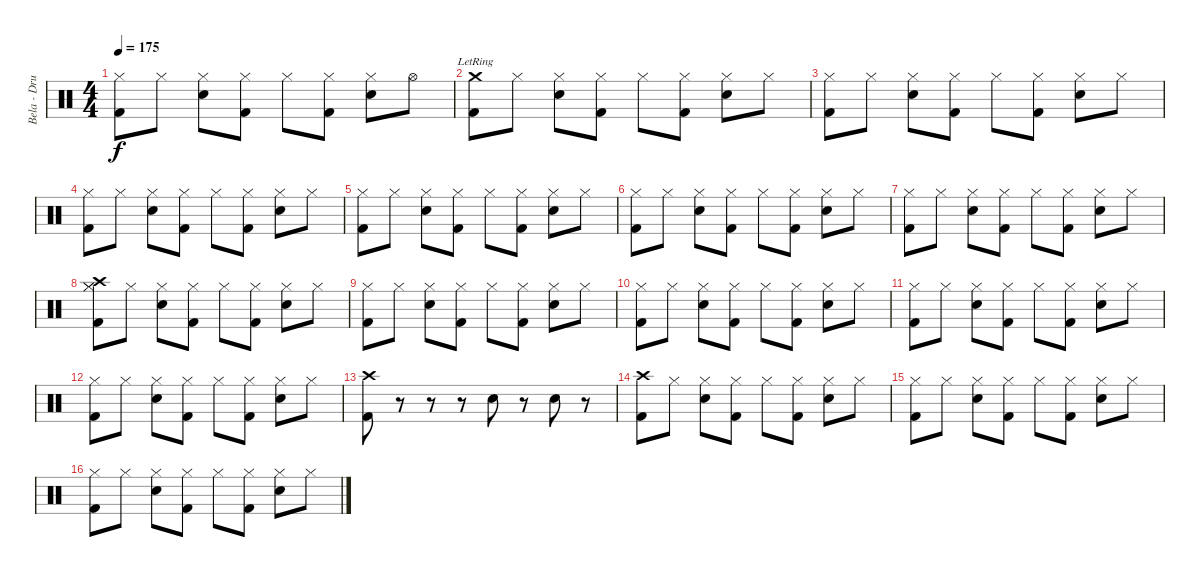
\track ("Bela - Drums" "Bela - Dru") {instrument percussion}
\staff {score}
\articulation defaults
\ts (4 4)
\tempo 175
\clef neutral
\ks c
("Hi-Hat (closed)" "Kick (hit) 2").8{dy f} "Hi-Hat (closed)".8 ("Hi-Hat (closed)" "Electric Snare (hit)").8 ("Hi-Hat (closed)" "Kick (hit) 2").8 "Hi-Hat (closed)".8 ("Hi-Hat (closed)" "Kick (hit) 2").8 ("Hi-Hat (closed)" "Electric Snare (hit)").8 "Hi-Hat (open)".8 |
("Crash medium (hit)"{lr} "Kick (hit) 2").8 "Hi-Hat (closed)".8 ("Hi-Hat (closed)" "Electric Snare (hit)").8 ("Hi-Hat (closed)" "Kick (hit) 2").8 "Hi-Hat (closed)".8 ("Hi-Hat (closed)" "Kick (hit) 2").8 ("Hi-Hat (closed)" "Electric Snare (hit)").8 "Hi-Hat (closed)".8 |
("Hi-Hat (closed)" "Kick (hit) 2").8 "Hi-Hat (closed)".8 ("Hi-Hat (closed)" "Electric Snare (hit)").8 ("Hi-Hat (closed)" "Kick (hit) 2").8 "Hi-Hat (closed)".8 ("Hi-Hat (closed)" "Kick (hit) 2").8 ("Hi-Hat (closed)" "Electric Snare (hit)").8 "Hi-Hat (closed)".8 |
("Hi-Hat (closed)" "Kick (hit) 2").8 "Hi-Hat (closed)".8 ("Hi-Hat (closed)" "Electric Snare (hit)").8 ("Hi-Hat (closed)" "Kick (hit) 2").8 "Hi-Hat (closed)".8 ("Hi-Hat (closed)" "Kick (hit) 2").8 ("Hi-Hat (closed)" "Electric Snare (hit)").8 "Hi-Hat (closed)".8 |
("Hi-Hat (closed)" "Kick (hit) 2").8 "Hi-Hat (closed)".8 ("Hi-Hat (closed)" "Electric Snare (hit)").8 ("Hi-Hat (closed)" "Kick (hit) 2").8 "Hi-Hat (closed)".8 ("Hi-Hat (closed)" "Kick (hit) 2").8 ("Hi-Hat (closed)" "Electric Snare (hit)").8 "Hi-Hat (closed)".8 |
("Hi-Hat (closed)" "Kick (hit) 2").8 "Hi-Hat (closed)".8 ("Hi-Hat (closed)" "Electric Snare (hit)").8 ("Hi-Hat (closed)" "Kick (hit) 2").8 "Hi-Hat (closed)".8 ("Hi-Hat (closed)" "Kick (hit) 2").8 ("Hi-Hat (closed)" "Electric Snare (hit)").8 "Hi-Hat (closed)".8 |
("Hi-Hat (closed)" "Kick (hit) 2").8 "Hi-Hat (closed)".8 ("Hi-Hat (closed)" "Electric Snare (hit)").8 ("Hi-Hat (closed)" "Kick (hit) 2").8 "Hi-Hat (closed)".8 ("Hi-Hat (closed)" "Kick (hit) 2").8 ("Hi-Hat (closed)" "Electric Snare (hit)").8 "Hi-Hat (closed)".8 |
("Crash high (hit)" "Hi-Hat (closed)" "Hi-Hat (closed)" "Kick (hit) 2").8 "Hi-Hat (closed)".8 ("Hi-Hat (closed)" "Electric Snare (hit)").8 ("Hi-Hat (closed)" "Kick (hit) 2").8 "Hi-Hat (closed)".8 ("Hi-Hat (closed)" "Kick (hit) 2").8 ("Hi-Hat (closed)" "Electric Snare (hit)").8 "Hi-Hat (closed)".8 |
("Hi-Hat (closed)" "Kick (hit) 2").8 "Hi-Hat (closed)".8 ("Hi-Hat (closed)" "Electric Snare (hit)").8 ("Hi-Hat (closed)" "Kick (hit) 2").8 "Hi-Hat (closed)".8 ("Hi-Hat (closed)" "Kick (hit) 2").8 ("Hi-Hat (closed)" "Electric Snare (hit)").8 "Hi-Hat (closed)".8 |
("Hi-Hat (closed)" "Kick (hit) 2").8 "Hi-Hat (closed)".8 ("Hi-Hat (closed)" "Electric Snare (hit)").8 ("Hi-Hat (closed)" "Kick (hit) 2").8 "Hi-Hat (closed)".8 ("Hi-Hat (closed)" "Kick (hit) 2").8 ("Hi-Hat (closed)" "Electric Snare (hit)").8 "Hi-Hat (closed)".8 |
("Hi-Hat (closed)" "Kick (hit) 2").8 "Hi-Hat (closed)".8 ("Hi-Hat (closed)" "Electric Snare (hit)").8 ("Hi-Hat (closed)" "Kick (hit) 2").8 "Hi-Hat (closed)".8 ("Hi-Hat (closed)" "Kick (hit) 2").8 ("Hi-Hat (closed)" "Electric Snare (hit)").8 "Hi-Hat (closed)".8 |
("Hi-Hat (closed)" "Kick (hit) 2").8 "Hi-Hat (closed)".8 ("Hi-Hat (closed)" "Electric Snare (hit)").8 ("Hi-Hat (closed)" "Kick (hit) 2").8 "Hi-Hat (closed)".8 ("Hi-Hat (closed)" "Kick (hit) 2").8 ("Hi-Hat (closed)" "Electric Snare (hit)").8 "Hi-Hat (closed)".8 |
("Crash high (hit)" "Kick (hit) 2").8 r.8 r.8 r.8 "Electric Snare (hit)".8 r.8 "Electric Snare (hit)".8 r.8 |
("Crash high (hit)" "Kick (hit) 2").8 "Hi-Hat (closed)".8 ("Hi-Hat (closed)" "Electric Snare (hit)").8 ("Hi-Hat (closed)" "Kick (hit) 2").8 "Hi-Hat (closed)".8 ("Hi-Hat (closed)" "Kick (hit) 2").8 ("Hi-Hat (closed)" "Electric Snare (hit)").8 "Hi-Hat (closed)".8 |
("Hi-Hat (closed)" "Kick (hit) 2").8 "Hi-Hat (closed)".8 ("Hi-Hat (closed)" "Electric Snare (hit)").8 ("Hi-Hat (closed)" "Kick (hit) 2").8 "Hi-Hat (closed)".8 ("Hi-Hat (closed)" "Kick (hit) 2").8 ("Hi-Hat (closed)" "Electric Snare (hit)").8 "Hi-Hat (closed)".8 |
("Hi-Hat (closed)" "Kick (hit) 2").8 "Hi-Hat (closed)".8 ("Hi-Hat (closed)" "Electric Snare (hit)").8 ("Hi-Hat (closed)" "Kick (hit) 2").8 "Hi-Hat (closed)".8 ("Hi-Hat (closed)" "Kick (hit) 2").8 ("Hi-Hat (closed)" "Electric Snare (hit)").8 "Hi-Hat (closed)".8
